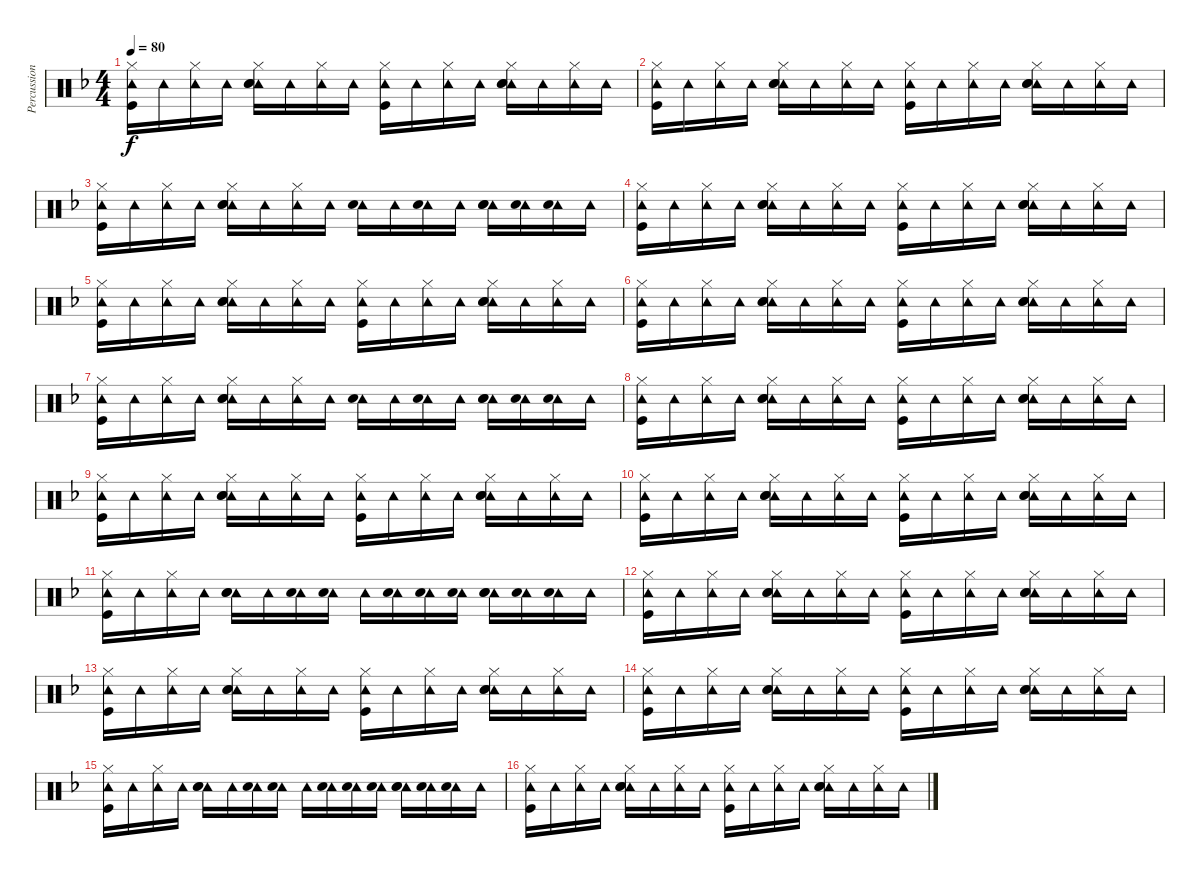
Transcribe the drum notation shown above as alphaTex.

\track ("Percussion" "Percussion") {instrument percussion}
\staff {score}
\articulation defaults
\ts (4 4)
\tempo 80
\clef neutral
\ks f
("Hi-Hat (closed)" "Tambourine (hit)" "Kick (hit)").16{dy f} "Tambourine (hit)".16 ("Hi-Hat (closed)" "Tambourine (hit)").16 "Tambourine (hit)".16 ("Hi-Hat (closed)" "Tambourine (hit)" "Snare (hit) 2" "Hand Clap (hit)").16 "Tambourine (hit)".16 ("Hi-Hat (closed)" "Tambourine (hit)").16 "Tambourine (hit)".16 ("Hi-Hat (closed)" "Tambourine (hit)" "Kick (hit)").16 "Tambourine (hit)".16 ("Hi-Hat (closed)" "Tambourine (hit)").16 "Tambourine (hit)".16 ("Hi-Hat (closed)" "Tambourine (hit)" "Snare (hit) 2" "Hand Clap (hit)").16 "Tambourine (hit)".16 ("Hi-Hat (closed)" "Tambourine (hit)").16 "Tambourine (hit)".16 |
("Hi-Hat (closed)" "Tambourine (hit)" "Kick (hit)").16 "Tambourine (hit)".16 ("Hi-Hat (closed)" "Tambourine (hit)").16 "Tambourine (hit)".16 ("Hi-Hat (closed)" "Tambourine (hit)" "Snare (hit) 2" "Hand Clap (hit)").16 "Tambourine (hit)".16 ("Hi-Hat (closed)" "Tambourine (hit)").16 "Tambourine (hit)".16 ("Hi-Hat (closed)" "Tambourine (hit)" "Kick (hit)").16 "Tambourine (hit)".16 ("Hi-Hat (closed)" "Tambourine (hit)").16 "Tambourine (hit)".16 ("Hi-Hat (closed)" "Tambourine (hit)" "Snare (hit) 2" "Hand Clap (hit)").16 "Tambourine (hit)".16 ("Hi-Hat (closed)" "Tambourine (hit)").16 "Tambourine (hit)".16 |
("Hi-Hat (closed)" "Tambourine (hit)" "Kick (hit)").16 "Tambourine (hit)".16 ("Hi-Hat (closed)" "Tambourine (hit)").16 "Tambourine (hit)".16 ("Hi-Hat (closed)" "Tambourine (hit)" "Snare (hit) 2" "Hand Clap (hit)").16 "Tambourine (hit)".16 ("Hi-Hat (closed)" "Tambourine (hit)").16 "Tambourine (hit)".16 ("Tambourine (hit)" "Snare (hit) 2").16 "Tambourine (hit)".16 ("Tambourine (hit)" "Snare (hit) 2").16 "Tambourine (hit)".16 ("Tambourine (hit)" "Snare (hit) 2" "Hand Clap (hit)").16 ("Tambourine (hit)" "Snare (hit) 2").16 ("Tambourine (hit)" "Snare (hit) 2").16 "Tambourine (hit)".16 |
("Hi-Hat (closed)" "Tambourine (hit)" "Kick (hit)").16 "Tambourine (hit)".16 ("Hi-Hat (closed)" "Tambourine (hit)").16 "Tambourine (hit)".16 ("Hi-Hat (closed)" "Tambourine (hit)" "Snare (hit) 2" "Hand Clap (hit)").16 "Tambourine (hit)".16 ("Hi-Hat (closed)" "Tambourine (hit)").16 "Tambourine (hit)".16 ("Hi-Hat (closed)" "Tambourine (hit)" "Kick (hit)").16 "Tambourine (hit)".16 ("Hi-Hat (closed)" "Tambourine (hit)").16 "Tambourine (hit)".16 ("Hi-Hat (closed)" "Tambourine (hit)" "Snare (hit) 2" "Hand Clap (hit)").16 "Tambourine (hit)".16 ("Hi-Hat (closed)" "Tambourine (hit)").16 "Tambourine (hit)".16 |
("Hi-Hat (closed)" "Tambourine (hit)" "Kick (hit)").16 "Tambourine (hit)".16 ("Hi-Hat (closed)" "Tambourine (hit)").16 "Tambourine (hit)".16 ("Hi-Hat (closed)" "Tambourine (hit)" "Snare (hit) 2" "Hand Clap (hit)").16 "Tambourine (hit)".16 ("Hi-Hat (closed)" "Tambourine (hit)").16 "Tambourine (hit)".16 ("Hi-Hat (closed)" "Tambourine (hit)" "Kick (hit)").16 "Tambourine (hit)".16 ("Hi-Hat (closed)" "Tambourine (hit)").16 "Tambourine (hit)".16 ("Hi-Hat (closed)" "Tambourine (hit)" "Snare (hit) 2" "Hand Clap (hit)").16 "Tambourine (hit)".16 ("Hi-Hat (closed)" "Tambourine (hit)").16 "Tambourine (hit)".16 |
("Hi-Hat (closed)" "Tambourine (hit)" "Kick (hit)").16 "Tambourine (hit)".16 ("Hi-Hat (closed)" "Tambourine (hit)").16 "Tambourine (hit)".16 ("Hi-Hat (closed)" "Tambourine (hit)" "Snare (hit) 2" "Hand Clap (hit)").16 "Tambourine (hit)".16 ("Hi-Hat (closed)" "Tambourine (hit)").16 "Tambourine (hit)".16 ("Hi-Hat (closed)" "Tambourine (hit)" "Kick (hit)").16 "Tambourine (hit)".16 ("Hi-Hat (closed)" "Tambourine (hit)").16 "Tambourine (hit)".16 ("Hi-Hat (closed)" "Tambourine (hit)" "Snare (hit) 2" "Hand Clap (hit)").16 "Tambourine (hit)".16 ("Hi-Hat (closed)" "Tambourine (hit)").16 "Tambourine (hit)".16 |
("Hi-Hat (closed)" "Tambourine (hit)" "Kick (hit)").16 "Tambourine (hit)".16 ("Hi-Hat (closed)" "Tambourine (hit)").16 "Tambourine (hit)".16 ("Hi-Hat (closed)" "Tambourine (hit)" "Snare (hit) 2" "Hand Clap (hit)").16 "Tambourine (hit)".16 ("Hi-Hat (closed)" "Tambourine (hit)").16 "Tambourine (hit)".16 ("Tambourine (hit)" "Snare (hit) 2").16 "Tambourine (hit)".16 ("Tambourine (hit)" "Snare (hit) 2").16 "Tambourine (hit)".16 ("Tambourine (hit)" "Snare (hit) 2" "Hand Clap (hit)").16 ("Tambourine (hit)" "Snare (hit) 2").16 ("Tambourine (hit)" "Snare (hit) 2").16 "Tambourine (hit)".16 |
("Hi-Hat (closed)" "Tambourine (hit)" "Kick (hit)").16 "Tambourine (hit)".16 ("Hi-Hat (closed)" "Tambourine (hit)").16 "Tambourine (hit)".16 ("Hi-Hat (closed)" "Tambourine (hit)" "Snare (hit) 2" "Hand Clap (hit)").16 "Tambourine (hit)".16 ("Hi-Hat (closed)" "Tambourine (hit)").16 "Tambourine (hit)".16 ("Hi-Hat (closed)" "Tambourine (hit)" "Kick (hit)").16 "Tambourine (hit)".16 ("Hi-Hat (closed)" "Tambourine (hit)").16 "Tambourine (hit)".16 ("Hi-Hat (closed)" "Tambourine (hit)" "Snare (hit) 2" "Hand Clap (hit)").16 "Tambourine (hit)".16 ("Hi-Hat (closed)" "Tambourine (hit)").16 "Tambourine (hit)".16 |
("Hi-Hat (closed)" "Tambourine (hit)" "Kick (hit)").16 "Tambourine (hit)".16 ("Hi-Hat (closed)" "Tambourine (hit)").16 "Tambourine (hit)".16 ("Hi-Hat (closed)" "Tambourine (hit)" "Snare (hit) 2" "Hand Clap (hit)").16 "Tambourine (hit)".16 ("Hi-Hat (closed)" "Tambourine (hit)").16 "Tambourine (hit)".16 ("Hi-Hat (closed)" "Tambourine (hit)" "Kick (hit)").16 "Tambourine (hit)".16 ("Hi-Hat (closed)" "Tambourine (hit)").16 "Tambourine (hit)".16 ("Hi-Hat (closed)" "Tambourine (hit)" "Snare (hit) 2" "Hand Clap (hit)").16 "Tambourine (hit)".16 ("Hi-Hat (closed)" "Tambourine (hit)").16 "Tambourine (hit)".16 |
("Hi-Hat (closed)" "Tambourine (hit)" "Kick (hit)").16 "Tambourine (hit)".16 ("Hi-Hat (closed)" "Tambourine (hit)").16 "Tambourine (hit)".16 ("Hi-Hat (closed)" "Tambourine (hit)" "Snare (hit) 2" "Hand Clap (hit)").16 "Tambourine (hit)".16 ("Hi-Hat (closed)" "Tambourine (hit)").16 "Tambourine (hit)".16 ("Hi-Hat (closed)" "Tambourine (hit)" "Kick (hit)").16 "Tambourine (hit)".16 ("Hi-Hat (closed)" "Tambourine (hit)").16 "Tambourine (hit)".16 ("Hi-Hat (closed)" "Tambourine (hit)" "Snare (hit) 2" "Hand Clap (hit)").16 "Tambourine (hit)".16 ("Hi-Hat (closed)" "Tambourine (hit)").16 "Tambourine (hit)".16 |
("Hi-Hat (closed)" "Tambourine (hit)" "Kick (hit)").16 "Tambourine (hit)".16 ("Hi-Hat (closed)" "Tambourine (hit)").16 "Tambourine (hit)".16 ("Tambourine (hit)" "Snare (hit) 2" "Hand Clap (hit)").16 "Tambourine (hit)".16 ("Tambourine (hit)" "Snare (hit) 2").16 ("Tambourine (hit)" "Snare (hit) 2").16 "Tambourine (hit)".16 ("Tambourine (hit)" "Snare (hit) 2").16 ("Tambourine (hit)" "Snare (hit) 2").16 ("Tambourine (hit)" "Snare (hit) 2").16 ("Tambourine (hit)" "Snare (hit) 2" "Hand Clap (hit)").16 ("Tambourine (hit)" "Snare (hit) 2").16 ("Tambourine (hit)" "Snare (hit) 2").16 "Tambourine (hit)".16 |
("Hi-Hat (closed)" "Tambourine (hit)" "Kick (hit)").16 "Tambourine (hit)".16 ("Hi-Hat (closed)" "Tambourine (hit)").16 "Tambourine (hit)".16 ("Hi-Hat (closed)" "Tambourine (hit)" "Snare (hit) 2" "Hand Clap (hit)").16 "Tambourine (hit)".16 ("Hi-Hat (closed)" "Tambourine (hit)").16 "Tambourine (hit)".16 ("Hi-Hat (closed)" "Tambourine (hit)" "Kick (hit)").16 "Tambourine (hit)".16 ("Hi-Hat (closed)" "Tambourine (hit)").16 "Tambourine (hit)".16 ("Hi-Hat (closed)" "Tambourine (hit)" "Snare (hit) 2" "Hand Clap (hit)").16 "Tambourine (hit)".16 ("Hi-Hat (closed)" "Tambourine (hit)").16 "Tambourine (hit)".16 |
("Hi-Hat (closed)" "Tambourine (hit)" "Kick (hit)").16 "Tambourine (hit)".16 ("Hi-Hat (closed)" "Tambourine (hit)").16 "Tambourine (hit)".16 ("Hi-Hat (closed)" "Tambourine (hit)" "Snare (hit) 2" "Hand Clap (hit)").16 "Tambourine (hit)".16 ("Hi-Hat (closed)" "Tambourine (hit)").16 "Tambourine (hit)".16 ("Hi-Hat (closed)" "Tambourine (hit)" "Kick (hit)").16 "Tambourine (hit)".16 ("Hi-Hat (closed)" "Tambourine (hit)").16 "Tambourine (hit)".16 ("Hi-Hat (closed)" "Tambourine (hit)" "Snare (hit) 2" "Hand Clap (hit)").16 "Tambourine (hit)".16 ("Hi-Hat (closed)" "Tambourine (hit)").16 "Tambourine (hit)".16 |
("Hi-Hat (closed)" "Tambourine (hit)" "Kick (hit)").16 "Tambourine (hit)".16 ("Hi-Hat (closed)" "Tambourine (hit)").16 "Tambourine (hit)".16 ("Hi-Hat (closed)" "Tambourine (hit)" "Snare (hit) 2" "Hand Clap (hit)").16 "Tambourine (hit)".16 ("Hi-Hat (closed)" "Tambourine (hit)").16 "Tambourine (hit)".16 ("Hi-Hat (closed)" "Tambourine (hit)" "Kick (hit)").16 "Tambourine (hit)".16 ("Hi-Hat (closed)" "Tambourine (hit)").16 "Tambourine (hit)".16 ("Hi-Hat (closed)" "Tambourine (hit)" "Snare (hit) 2" "Hand Clap (hit)").16 "Tambourine (hit)".16 ("Hi-Hat (closed)" "Tambourine (hit)").16 "Tambourine (hit)".16 |
("Hi-Hat (closed)" "Tambourine (hit)" "Kick (hit)").16 "Tambourine (hit)".16 ("Hi-Hat (closed)" "Tambourine (hit)").16 "Tambourine (hit)".16 ("Tambourine (hit)" "Snare (hit) 2" "Hand Clap (hit)").16 "Tambourine (hit)".16 ("Tambourine (hit)" "Snare (hit) 2").16 ("Tambourine (hit)" "Snare (hit) 2").16 "Tambourine (hit)".16 ("Tambourine (hit)" "Snare (hit) 2").16 ("Tambourine (hit)" "Snare (hit) 2").16 ("Tambourine (hit)" "Snare (hit) 2").16 ("Tambourine (hit)" "Snare (hit) 2" "Hand Clap (hit)").16 ("Tambourine (hit)" "Snare (hit) 2").16 ("Tambourine (hit)" "Snare (hit) 2").16 "Tambourine (hit)".16 |
("Hi-Hat (closed)" "Tambourine (hit)" "Kick (hit)").16 "Tambourine (hit)".16 ("Hi-Hat (closed)" "Tambourine (hit)").16 "Tambourine (hit)".16 ("Hi-Hat (closed)" "Tambourine (hit)" "Snare (hit) 2" "Hand Clap (hit)").16 "Tambourine (hit)".16 ("Hi-Hat (closed)" "Tambourine (hit)").16 "Tambourine (hit)".16 ("Hi-Hat (closed)" "Tambourine (hit)" "Kick (hit)").16 "Tambourine (hit)".16 ("Hi-Hat (closed)" "Tambourine (hit)").16 "Tambourine (hit)".16 ("Hi-Hat (closed)" "Tambourine (hit)" "Snare (hit) 2" "Hand Clap (hit)").16 "Tambourine (hit)".16 ("Hi-Hat (closed)" "Tambourine (hit)").16 "Tambourine (hit)".16
